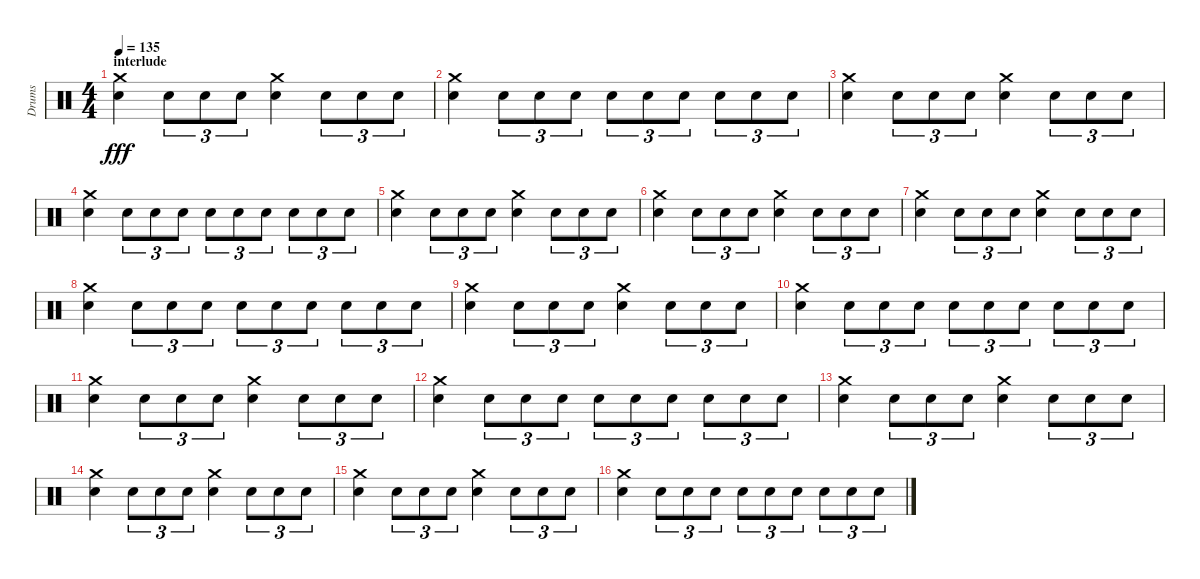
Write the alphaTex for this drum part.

\track ("Drums" "Drums") {instrument percussion}
\staff {score}
\articulation defaults
\ts (4 4)
\section ("" "interlude")
\tempo 135
\clef neutral
\ks c
("Electric Snare (hit)" "Crash medium (hit)").4{dy fff} "Electric Snare (hit)".8{tu (3 2)} "Electric Snare (hit)".8{tu (3 2)} "Electric Snare (hit)".8{tu (3 2)} ("Electric Snare (hit)" "Crash medium (hit)").4 "Electric Snare (hit)".8{tu (3 2)} "Electric Snare (hit)".8{tu (3 2)} "Electric Snare (hit)".8{tu (3 2)} |
("Electric Snare (hit)" "Crash medium (hit)").4 "Electric Snare (hit)".8{tu (3 2)} "Electric Snare (hit)".8{tu (3 2)} "Electric Snare (hit)".8{tu (3 2)} "Electric Snare (hit)".8{tu (3 2)} "Electric Snare (hit)".8{tu (3 2)} "Electric Snare (hit)".8{tu (3 2)} "Electric Snare (hit)".8{tu (3 2)} "Electric Snare (hit)".8{tu (3 2)} "Electric Snare (hit)".8{tu (3 2)} |
("Electric Snare (hit)" "Crash medium (hit)").4 "Electric Snare (hit)".8{tu (3 2)} "Electric Snare (hit)".8{tu (3 2)} "Electric Snare (hit)".8{tu (3 2)} ("Electric Snare (hit)" "Crash medium (hit)").4 "Electric Snare (hit)".8{tu (3 2)} "Electric Snare (hit)".8{tu (3 2)} "Electric Snare (hit)".8{tu (3 2)} |
("Electric Snare (hit)" "Crash medium (hit)").4 "Electric Snare (hit)".8{tu (3 2)} "Electric Snare (hit)".8{tu (3 2)} "Electric Snare (hit)".8{tu (3 2)} "Electric Snare (hit)".8{tu (3 2)} "Electric Snare (hit)".8{tu (3 2)} "Electric Snare (hit)".8{tu (3 2)} "Electric Snare (hit)".8{tu (3 2)} "Electric Snare (hit)".8{tu (3 2)} "Electric Snare (hit)".8{tu (3 2)} |
("Electric Snare (hit)" "Crash medium (hit)").4 "Electric Snare (hit)".8{tu (3 2)} "Electric Snare (hit)".8{tu (3 2)} "Electric Snare (hit)".8{tu (3 2)} ("Electric Snare (hit)" "Crash medium (hit)").4 "Electric Snare (hit)".8{tu (3 2)} "Electric Snare (hit)".8{tu (3 2)} "Electric Snare (hit)".8{tu (3 2)} |
("Electric Snare (hit)" "Crash medium (hit)").4 "Electric Snare (hit)".8{tu (3 2)} "Electric Snare (hit)".8{tu (3 2)} "Electric Snare (hit)".8{tu (3 2)} ("Electric Snare (hit)" "Crash medium (hit)").4 "Electric Snare (hit)".8{tu (3 2)} "Electric Snare (hit)".8{tu (3 2)} "Electric Snare (hit)".8{tu (3 2)} |
("Electric Snare (hit)" "Crash medium (hit)").4 "Electric Snare (hit)".8{tu (3 2)} "Electric Snare (hit)".8{tu (3 2)} "Electric Snare (hit)".8{tu (3 2)} ("Electric Snare (hit)" "Crash medium (hit)").4 "Electric Snare (hit)".8{tu (3 2)} "Electric Snare (hit)".8{tu (3 2)} "Electric Snare (hit)".8{tu (3 2)} |
("Electric Snare (hit)" "Crash medium (hit)").4 "Electric Snare (hit)".8{tu (3 2)} "Electric Snare (hit)".8{tu (3 2)} "Electric Snare (hit)".8{tu (3 2)} "Electric Snare (hit)".8{tu (3 2)} "Electric Snare (hit)".8{tu (3 2)} "Electric Snare (hit)".8{tu (3 2)} "Electric Snare (hit)".8{tu (3 2)} "Electric Snare (hit)".8{tu (3 2)} "Electric Snare (hit)".8{tu (3 2)} |
("Electric Snare (hit)" "Crash medium (hit)").4 "Electric Snare (hit)".8{tu (3 2)} "Electric Snare (hit)".8{tu (3 2)} "Electric Snare (hit)".8{tu (3 2)} ("Electric Snare (hit)" "Crash medium (hit)").4 "Electric Snare (hit)".8{tu (3 2)} "Electric Snare (hit)".8{tu (3 2)} "Electric Snare (hit)".8{tu (3 2)} |
("Electric Snare (hit)" "Crash medium (hit)").4 "Electric Snare (hit)".8{tu (3 2)} "Electric Snare (hit)".8{tu (3 2)} "Electric Snare (hit)".8{tu (3 2)} "Electric Snare (hit)".8{tu (3 2)} "Electric Snare (hit)".8{tu (3 2)} "Electric Snare (hit)".8{tu (3 2)} "Electric Snare (hit)".8{tu (3 2)} "Electric Snare (hit)".8{tu (3 2)} "Electric Snare (hit)".8{tu (3 2)} |
("Electric Snare (hit)" "Crash medium (hit)").4 "Electric Snare (hit)".8{tu (3 2)} "Electric Snare (hit)".8{tu (3 2)} "Electric Snare (hit)".8{tu (3 2)} ("Electric Snare (hit)" "Crash medium (hit)").4 "Electric Snare (hit)".8{tu (3 2)} "Electric Snare (hit)".8{tu (3 2)} "Electric Snare (hit)".8{tu (3 2)} |
("Electric Snare (hit)" "Crash medium (hit)").4 "Electric Snare (hit)".8{tu (3 2)} "Electric Snare (hit)".8{tu (3 2)} "Electric Snare (hit)".8{tu (3 2)} "Electric Snare (hit)".8{tu (3 2)} "Electric Snare (hit)".8{tu (3 2)} "Electric Snare (hit)".8{tu (3 2)} "Electric Snare (hit)".8{tu (3 2)} "Electric Snare (hit)".8{tu (3 2)} "Electric Snare (hit)".8{tu (3 2)} |
("Electric Snare (hit)" "Crash medium (hit)").4 "Electric Snare (hit)".8{tu (3 2)} "Electric Snare (hit)".8{tu (3 2)} "Electric Snare (hit)".8{tu (3 2)} ("Electric Snare (hit)" "Crash medium (hit)").4 "Electric Snare (hit)".8{tu (3 2)} "Electric Snare (hit)".8{tu (3 2)} "Electric Snare (hit)".8{tu (3 2)} |
("Electric Snare (hit)" "Crash medium (hit)").4 "Electric Snare (hit)".8{tu (3 2)} "Electric Snare (hit)".8{tu (3 2)} "Electric Snare (hit)".8{tu (3 2)} ("Electric Snare (hit)" "Crash medium (hit)").4 "Electric Snare (hit)".8{tu (3 2)} "Electric Snare (hit)".8{tu (3 2)} "Electric Snare (hit)".8{tu (3 2)} |
("Electric Snare (hit)" "Crash medium (hit)").4 "Electric Snare (hit)".8{tu (3 2)} "Electric Snare (hit)".8{tu (3 2)} "Electric Snare (hit)".8{tu (3 2)} ("Electric Snare (hit)" "Crash medium (hit)").4 "Electric Snare (hit)".8{tu (3 2)} "Electric Snare (hit)".8{tu (3 2)} "Electric Snare (hit)".8{tu (3 2)} |
("Electric Snare (hit)" "Crash medium (hit)").4 "Electric Snare (hit)".8{tu (3 2)} "Electric Snare (hit)".8{tu (3 2)} "Electric Snare (hit)".8{tu (3 2)} "Electric Snare (hit)".8{tu (3 2)} "Electric Snare (hit)".8{tu (3 2)} "Electric Snare (hit)".8{tu (3 2)} "Electric Snare (hit)".8{tu (3 2)} "Electric Snare (hit)".8{tu (3 2)} "Electric Snare (hit)".8{tu (3 2)}
